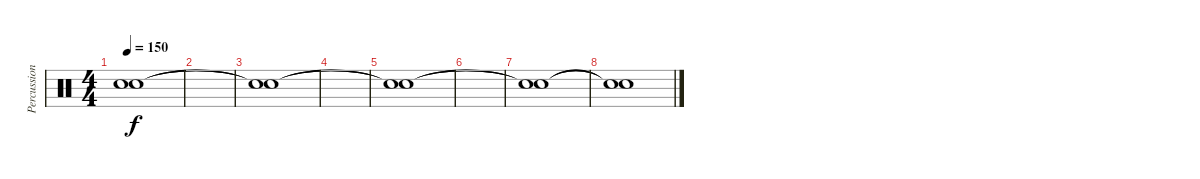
\track ("Percussion" "Percussion") {instrument percussion}
\staff {score}
\articulation defaults
\ts (4 4)
\tempo 150
\clef neutral
\ks c
("Snare (hit)"{t} "Snare (hit)"{t}).1{dy f} |
|
("Snare (hit)"{t} "Snare (hit)"{t}).1 |
|
("Snare (hit)"{t} "Snare (hit)"{t}).1 |
|
("Snare (hit)"{t} "Snare (hit)"{t}).1 |
("Snare (hit)"{t} "Snare (hit)"{t}).1
